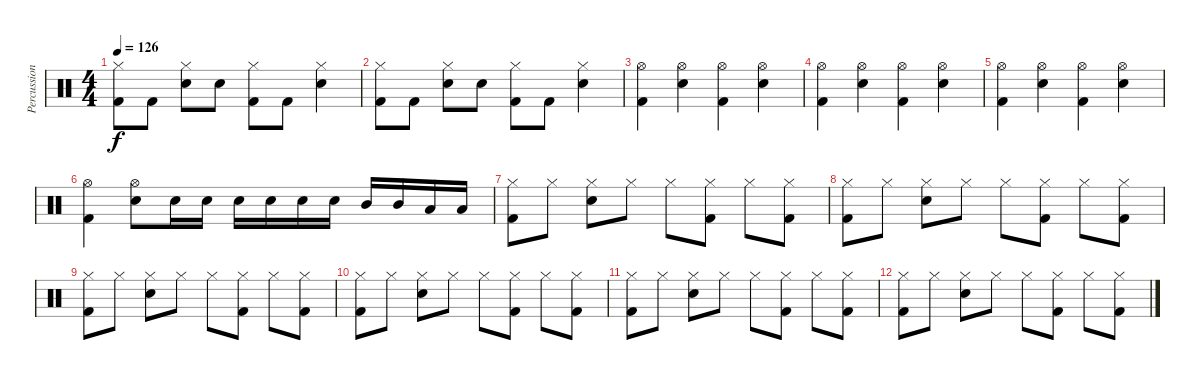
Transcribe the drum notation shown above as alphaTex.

\track ("Percussion" "Percussion") {instrument percussion}
\staff {score}
\articulation defaults
\ts (4 4)
\tempo 126
\clef neutral
\ks c
("Hi-Hat (closed)" "Kick (hit) 2").8{dy f} "Kick (hit) 2".8 ("Hi-Hat (closed)" "Electric Snare (hit)").8 "Electric Snare (hit)".8 ("Hi-Hat (closed)" "Kick (hit) 2").8 "Kick (hit) 2".8 ("Hi-Hat (closed)" "Electric Snare (hit)").4 |
("Hi-Hat (closed)" "Kick (hit) 2").8 "Kick (hit) 2".8 ("Hi-Hat (closed)" "Electric Snare (hit)").8 "Electric Snare (hit)".8 ("Hi-Hat (closed)" "Kick (hit) 2").8 "Kick (hit) 2".8 ("Hi-Hat (closed)" "Electric Snare (hit)").4 |
("Hi-Hat (open)" "Kick (hit) 2").4 ("Hi-Hat (open)" "Electric Snare (hit)").4 ("Hi-Hat (open)" "Kick (hit) 2").4 ("Hi-Hat (open)" "Electric Snare (hit)").4 |
("Hi-Hat (open)" "Kick (hit) 2").4 ("Hi-Hat (open)" "Electric Snare (hit)").4 ("Hi-Hat (open)" "Kick (hit) 2").4 ("Hi-Hat (open)" "Electric Snare (hit)").4 |
("Hi-Hat (open)" "Kick (hit) 2").4 ("Hi-Hat (open)" "Electric Snare (hit)").4 ("Hi-Hat (open)" "Kick (hit) 2").4 ("Hi-Hat (open)" "Electric Snare (hit)").4 |
("Hi-Hat (open)" "Kick (hit) 2").4 ("Hi-Hat (open)" "Electric Snare (hit)").8 "Electric Snare (hit)".16 "Electric Snare (hit)".16 "Electric Snare (hit)".16 "Electric Snare (hit)".16 "Electric Snare (hit)".16 "Electric Snare (hit)".16 "Mid Tom (hit)".16 "Mid Tom (hit)".16 "Low Tom (hit)".16 "Low Tom (hit)".16 |
("Hi-Hat (closed)" "Kick (hit) 2").8 "Hi-Hat (closed)".8 ("Hi-Hat (closed)" "Electric Snare (hit)").8 "Hi-Hat (closed)".8 "Hi-Hat (closed)".8 ("Hi-Hat (closed)" "Kick (hit) 2").8 "Hi-Hat (closed)".8 ("Hi-Hat (closed)" "Kick (hit) 2").8 |
("Hi-Hat (closed)" "Kick (hit) 2").8 "Hi-Hat (closed)".8 ("Hi-Hat (closed)" "Electric Snare (hit)").8 "Hi-Hat (closed)".8 "Hi-Hat (closed)".8 ("Hi-Hat (closed)" "Kick (hit) 2").8 "Hi-Hat (closed)".8 ("Hi-Hat (closed)" "Kick (hit) 2").8 |
("Hi-Hat (closed)" "Kick (hit) 2").8 "Hi-Hat (closed)".8 ("Hi-Hat (closed)" "Electric Snare (hit)").8 "Hi-Hat (closed)".8 "Hi-Hat (closed)".8 ("Hi-Hat (closed)" "Kick (hit) 2").8 "Hi-Hat (closed)".8 ("Hi-Hat (closed)" "Kick (hit) 2").8 |
("Hi-Hat (closed)" "Kick (hit) 2").8 "Hi-Hat (closed)".8 ("Hi-Hat (closed)" "Electric Snare (hit)").8 "Hi-Hat (closed)".8 "Hi-Hat (closed)".8 ("Hi-Hat (closed)" "Kick (hit) 2").8 "Hi-Hat (closed)".8 ("Hi-Hat (closed)" "Kick (hit) 2").8 |
("Hi-Hat (closed)" "Kick (hit) 2").8 "Hi-Hat (closed)".8 ("Hi-Hat (closed)" "Electric Snare (hit)").8 "Hi-Hat (closed)".8 "Hi-Hat (closed)".8 ("Hi-Hat (closed)" "Kick (hit) 2").8 "Hi-Hat (closed)".8 ("Hi-Hat (closed)" "Kick (hit) 2").8 |
("Hi-Hat (closed)" "Kick (hit) 2").8 "Hi-Hat (closed)".8 ("Hi-Hat (closed)" "Electric Snare (hit)").8 "Hi-Hat (closed)".8 "Hi-Hat (closed)".8 ("Hi-Hat (closed)" "Kick (hit) 2").8 "Hi-Hat (closed)".8 ("Hi-Hat (closed)" "Kick (hit) 2").8
